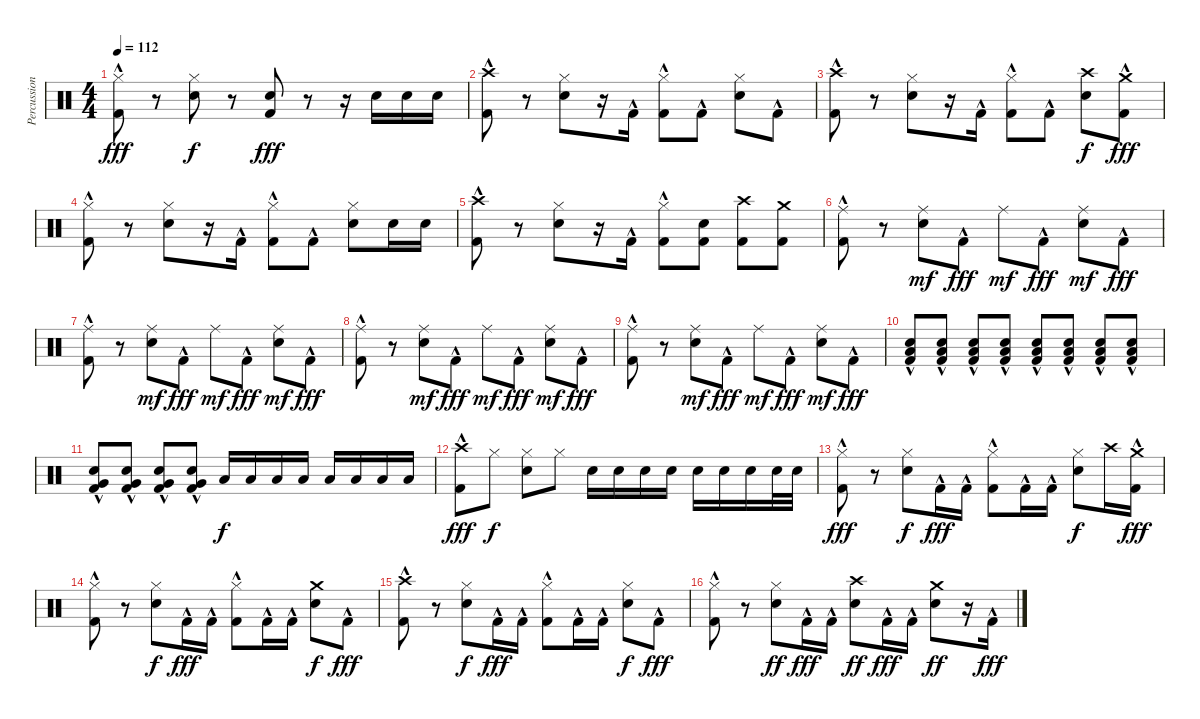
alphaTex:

\track ("Percussions" "Percussion") {instrument percussion}
\staff {score}
\articulation defaults
\ts (4 4)
\tempo 112
\clef neutral
\ks c
("Hi-Hat (closed)" "Kick (hit) 2"{hac}).8{dy fff} r.8 ("Hi-Hat (closed)" "Snare (hit) 2").8{dy f} r.8 ("Snare (hit) 2" "Kick (hit) 2").8{dy fff} r.8 r.16 "Snare (hit) 2".16 "Snare (hit) 2".16 "Snare (hit) 2".16 |
("Crash high (hit)" "Kick (hit) 2"{hac}).8 r.8 ("Hi-Hat (closed)" "Snare (hit) 2").8 r.16 "Kick (hit) 2"{hac}.16 ("Hi-Hat (closed)" "Kick (hit) 2"{hac}).8 "Kick (hit) 2"{hac}.8 ("Hi-Hat (closed)" "Snare (hit) 2").8 "Kick (hit) 2"{hac}.8 |
("Crash high (hit)" "Kick (hit) 2"{hac}).8 r.8 ("Hi-Hat (closed)" "Snare (hit) 2").8 r.16 "Kick (hit) 2"{hac}.16 ("Hi-Hat (closed)" "Kick (hit) 2"{hac}).8 "Kick (hit) 2"{hac}.8 ("Crash high (hit)" "Snare (hit) 2").8{dy f} ("Crash medium (hit)" "Kick (hit) 2"{hac}).8{dy fff} |
("Hi-Hat (closed)" "Kick (hit) 2"{hac}).8 r.8 ("Hi-Hat (closed)" "Snare (hit) 2").8 r.16 "Kick (hit) 2"{hac}.16 ("Hi-Hat (closed)" "Kick (hit) 2"{hac}).8 "Kick (hit) 2"{hac}.8 ("Hi-Hat (closed)" "Snare (hit) 2").8 "Snare (hit) 2".16 "Snare (hit) 2".16 |
("Crash high (hit)" "Kick (hit) 2"{hac}).8 r.8 ("Hi-Hat (closed)" "Snare (hit) 2").8 r.16 "Kick (hit) 2"{hac}.16 ("Hi-Hat (closed)" "Kick (hit) 2"{hac}).8 ("Snare (hit) 2" "Kick (hit) 2").8 ("Crash high (hit)" "Kick (hit) 2").8 ("Crash medium (hit)" "Kick (hit) 2").8 |
("Ride (middle)" "Kick (hit) 2"{hac}).8 r.8 ("Ride (middle)" "Snare (hit) 2").8{dy mf} "Kick (hit) 2"{hac}.8{dy fff} "Ride (middle)".8{dy mf} "Kick (hit) 2"{hac}.8{dy fff} ("Ride (middle)" "Snare (hit) 2").8{dy mf} "Kick (hit) 2"{hac}.8{dy fff} |
("Ride (middle)" "Kick (hit) 2"{hac}).8 r.8 ("Ride (middle)" "Snare (hit) 2").8{dy mf} "Kick (hit) 2"{hac}.8{dy fff} "Ride (middle)".8{dy mf} "Kick (hit) 2"{hac}.8{dy fff} ("Ride (middle)" "Snare (hit) 2").8{dy mf} "Kick (hit) 2"{hac}.8{dy fff} |
("Ride (middle)" "Kick (hit) 2"{hac}).8 r.8 ("Ride (middle)" "Snare (hit) 2").8{dy mf} "Kick (hit) 2"{hac}.8{dy fff} "Ride (middle)".8{dy mf} "Kick (hit) 2"{hac}.8{dy fff} ("Ride (middle)" "Snare (hit) 2").8{dy mf} "Kick (hit) 2"{hac}.8{dy fff} |
("Ride (middle)" "Kick (hit) 2"{hac}).8 r.8 ("Ride (middle)" "Snare (hit) 2").8{dy mf} "Kick (hit) 2"{hac}.8{dy fff} "Ride (middle)".8{dy mf} "Kick (hit) 2"{hac}.8{dy fff} ("Ride (middle)" "Snare (hit) 2").8{dy mf} "Kick (hit) 2"{hac}.8{dy fff} |
("Snare (hit) 2" "Low Floor Tom (hit)" "Kick (hit) 2"{hac}).8 ("Snare (hit) 2" "Low Floor Tom (hit)" "Kick (hit) 2"{hac}).8 ("Snare (hit) 2" "Low Floor Tom (hit)" "Kick (hit) 2"{hac}).8 ("Snare (hit) 2" "Low Floor Tom (hit)" "Kick (hit) 2"{hac}).8 ("Snare (hit) 2" "Low Floor Tom (hit)" "Kick (hit) 2"{hac}).8 ("Snare (hit) 2" "Low Floor Tom (hit)" "Kick (hit) 2"{hac}).8 ("Snare (hit) 2" "Low Floor Tom (hit)" "Kick (hit) 2"{hac}).8 ("Snare (hit) 2" "Low Floor Tom (hit)" "Kick (hit) 2"{hac}).8 |
("Snare (hit) 2" "Very Low Tom (hit)" "Kick (hit) 2"{hac}).8 ("Snare (hit) 2" "Very Low Tom (hit)" "Kick (hit) 2"{hac}).8 ("Snare (hit) 2" "Very Low Tom (hit)" "Kick (hit) 2"{hac}).8 ("Snare (hit) 2" "Very Low Tom (hit)" "Kick (hit) 2"{hac}).8 "Low Floor Tom (hit)".16{dy f} "Low Floor Tom (hit)".16 "Low Floor Tom (hit)".16 "Low Floor Tom (hit)".16 "Low Floor Tom (hit)".16 "Low Floor Tom (hit)".16 "Low Floor Tom (hit)".16 "Low Floor Tom (hit)".16 |
("Crash high (hit)" "Kick (hit) 2"{hac}).8{dy fff} "Hi-Hat (closed)".8{dy f} ("Hi-Hat (closed)" "Snare (hit) 2").8 "Hi-Hat (closed)".8 "Snare (hit) 2".16 "Snare (hit) 2".16 "Snare (hit) 2".16 "Snare (hit) 2".16 "Snare (hit) 2".16 "Snare (hit) 2".16 "Snare (hit) 2".16 "Snare (hit) 2".32 "Snare (hit) 2".32 |
("Hi-Hat (closed)" "Kick (hit) 2"{hac}).8{dy fff} r.8 ("Hi-Hat (closed)" "Snare (hit) 2").8{dy f} "Kick (hit) 2"{hac}.16{dy fff} "Kick (hit) 2"{hac}.16 ("Hi-Hat (closed)" "Kick (hit) 2"{hac}).8 "Kick (hit) 2"{hac}.16 "Kick (hit) 2"{hac}.16 ("Hi-Hat (closed)" "Snare (hit) 2").8{dy f} "Crash high (hit)".16 ("Crash medium (hit)" "Kick (hit) 2"{hac}).16{dy fff} |
("Hi-Hat (closed)" "Kick (hit) 2"{hac}).8 r.8 ("Hi-Hat (closed)" "Snare (hit) 2").8{dy f} "Kick (hit) 2"{hac}.16{dy fff} "Kick (hit) 2"{hac}.16 ("Hi-Hat (closed)" "Kick (hit) 2"{hac}).8 "Kick (hit) 2"{hac}.16 "Kick (hit) 2"{hac}.16 ("Crash medium (hit)" "Snare (hit) 2").8{dy f} "Kick (hit) 2"{hac}.8{dy fff} |
("Crash high (hit)" "Kick (hit) 2"{hac}).8 r.8 ("Hi-Hat (closed)" "Snare (hit) 2").8{dy f} "Kick (hit) 2"{hac}.16{dy fff} "Kick (hit) 2"{hac}.16 ("Hi-Hat (closed)" "Kick (hit) 2"{hac}).8 "Kick (hit) 2"{hac}.16 "Kick (hit) 2"{hac}.16 ("Hi-Hat (closed)" "Snare (hit) 2").8{dy f} "Kick (hit) 2"{hac}.8{dy fff} |
("Hi-Hat (closed)" "Kick (hit) 2"{hac}).8 r.8 ("Hi-Hat (closed)" "Snare (hit) 2").8{dy ff} "Kick (hit) 2"{hac}.16{dy fff} "Kick (hit) 2"{hac}.16 ("Crash high (hit)" "Snare (hit) 2").8{dy ff} "Kick (hit) 2"{hac}.16{dy fff} "Kick (hit) 2"{hac}.16 ("Crash medium (hit)" "Snare (hit) 2").8{dy ff} r.16 "Kick (hit) 2"{hac}.16{dy fff}
